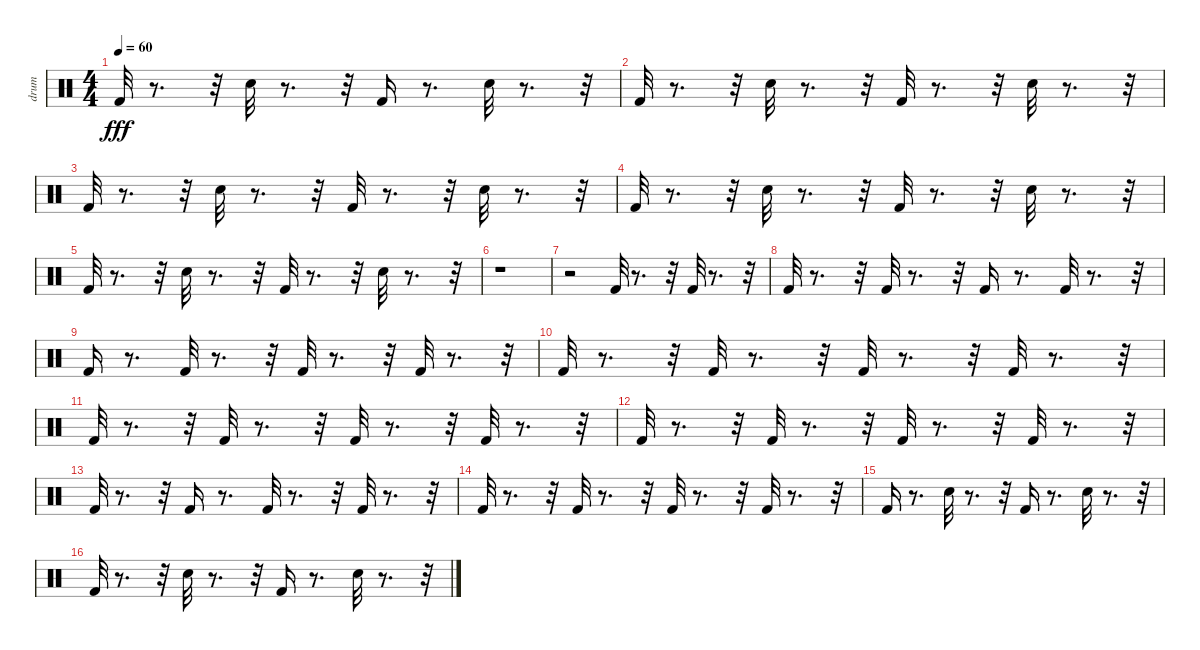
\track ("drum    " "drum    ") {instrument percussion}
\staff {score}
\articulation defaults
\ts (4 4)
\tempo 60
\clef neutral
\ks c "Kick (hit) 2".32{dy fff}
r.8{d} r.32 "Electric Snare (hit)".32 r.8{d} r.32 "Kick (hit) 2".16 r.8{d} "Electric Snare (hit)".32 r.8{d} r.32 |
"Kick (hit) 2".32 r.8{d} r.32 "Electric Snare (hit)".32 r.8{d} r.32 "Kick (hit) 2".32 r.8{d} r.32 "Electric Snare (hit)".32 r.8{d} r.32 |
"Kick (hit) 2".32 r.8{d} r.32 "Electric Snare (hit)".32 r.8{d} r.32 "Kick (hit) 2".32 r.8{d} r.32 "Electric Snare (hit)".32 r.8{d} r.32 |
"Kick (hit) 2".32 r.8{d} r.32 "Electric Snare (hit)".32 r.8{d} r.32 "Kick (hit) 2".32 r.8{d} r.32 "Electric Snare (hit)".32 r.8{d} r.32 |
"Kick (hit) 2".32 r.8{d} r.32 "Electric Snare (hit)".32 r.8{d} r.32 "Kick (hit) 2".32 r.8{d} r.32 "Electric Snare (hit)".32 r.8{d} r.32 |
r.1 |
r.2 "Kick (hit) 2".32 r.8{d} r.32 "Kick (hit) 2".32 r.8{d} r.32 |
"Kick (hit) 2".32 r.8{d} r.32 "Kick (hit) 2".32 r.8{d} r.32 "Kick (hit) 2".16 r.8{d} "Kick (hit) 2".32 r.8{d} r.32 |
"Kick (hit) 2".16 r.8{d} "Kick (hit) 2".32 r.8{d} r.32 "Kick (hit) 2".32 r.8{d} r.32 "Kick (hit) 2".32 r.8{d} r.32 |
"Kick (hit) 2".32 r.8{d} r.32 "Kick (hit) 2".32 r.8{d} r.32 "Kick (hit) 2".32 r.8{d} r.32 "Kick (hit) 2".32 r.8{d} r.32 |
"Kick (hit) 2".32 r.8{d} r.32 "Kick (hit) 2".32 r.8{d} r.32 "Kick (hit) 2".32 r.8{d} r.32 "Kick (hit) 2".32 r.8{d} r.32 |
"Kick (hit) 2".32 r.8{d} r.32 "Kick (hit) 2".32 r.8{d} r.32 "Kick (hit) 2".32 r.8{d} r.32 "Kick (hit) 2".32 r.8{d} r.32 |
"Kick (hit) 2".32 r.8{d} r.32 "Kick (hit) 2".16 r.8{d} "Kick (hit) 2".32 r.8{d} r.32 "Kick (hit) 2".32 r.8{d} r.32 |
"Kick (hit) 2".32 r.8{d} r.32 "Kick (hit) 2".32 r.8{d} r.32 "Kick (hit) 2".32 r.8{d} r.32 "Kick (hit) 2".32 r.8{d} r.32 |
"Kick (hit) 2".16 r.8{d} "Electric Snare (hit)".32 r.8{d} r.32 "Kick (hit) 2".16 r.8{d} "Electric Snare (hit)".32 r.8{d} r.32 |
"Kick (hit) 2".32 r.8{d} r.32 "Electric Snare (hit)".32 r.8{d} r.32 "Kick (hit) 2".16 r.8{d} "Electric Snare (hit)".32 r.8{d} r.32
